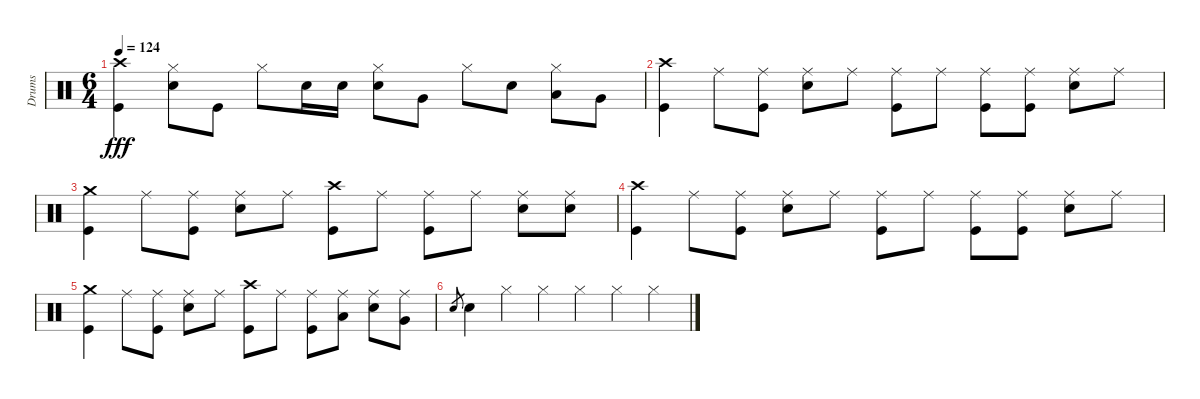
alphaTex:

\track ("Drums" "Drums") {instrument percussion}
\staff {score}
\articulation defaults
\ts (6 4)
\tempo 124
\clef neutral
\ks c
("Crash high (hit)" "Kick (hit)").4{dy fff} ("Hi-Hat (closed)" "Snare (hit) 2").8 "Kick (hit)".8 "Hi-Hat (closed)".8 "Snare (hit) 2".16 "Snare (hit) 2".16 ("Hi-Hat (closed)" "Snare (hit) 2").8 "Very Low Tom (hit)".8 "Hi-Hat (closed)".8 "Snare (hit) 2".8 ("Hi-Hat (closed)" "Low Tom (hit)").8 "Very Low Tom (hit)".8 |
("Crash high (hit)" "Kick (hit)").4 "Ride (middle)".8 ("Ride (middle)" "Kick (hit)").8 ("Ride (middle)" "Snare (hit) 2").8 "Ride (middle)".8 ("Ride (middle)" "Kick (hit)").8 "Ride (middle)".8 ("Ride (middle)" "Kick (hit)").8 ("Ride (middle)" "Kick (hit)").8 ("Ride (middle)" "Snare (hit) 2").8 "Ride (middle)".8 |
("Crash medium (hit)" "Kick (hit)").4 "Ride (middle)".8 ("Ride (middle)" "Kick (hit)").8 ("Ride (middle)" "Snare (hit) 2").8 "Ride (middle)".8 ("Crash high (hit)" "Kick (hit)").8 "Ride (middle)".8 ("Ride (middle)" "Kick (hit)").8 "Ride (middle)".8 ("Ride (middle)" "Snare (hit) 2").8 ("Ride (middle)" "Snare (hit) 2").8 |
("Crash high (hit)" "Kick (hit)").4 "Ride (middle)".8 ("Ride (middle)" "Kick (hit)").8 ("Ride (middle)" "Snare (hit) 2").8 "Ride (middle)".8 ("Ride (middle)" "Kick (hit)").8 "Ride (middle)".8 ("Ride (middle)" "Kick (hit)").8 ("Ride (middle)" "Kick (hit)").8 ("Ride (middle)" "Snare (hit) 2").8 "Ride (middle)".8 |
("Crash medium (hit)" "Kick (hit)").4 "Ride (middle)".8 ("Ride (middle)" "Kick (hit)").8 ("Ride (middle)" "Snare (hit) 2").8 "Ride (middle)".8 ("Crash high (hit)" "Kick (hit)").8 "Ride (middle)".8 ("Ride (middle)" "Kick (hit)").8 ("Ride (middle)" "Low Tom (hit)").8 ("Ride (middle)" "Snare (hit) 2").8 ("Ride (middle)" "Very Low Tom (hit)").8 |
"Snare (hit) 2".8{gr} "Snare (hit) 2".4 "Hi-Hat (closed)".4 "Hi-Hat (closed)".4 "Hi-Hat (closed)".4 "Hi-Hat (closed)".4 "Hi-Hat (closed)".4
